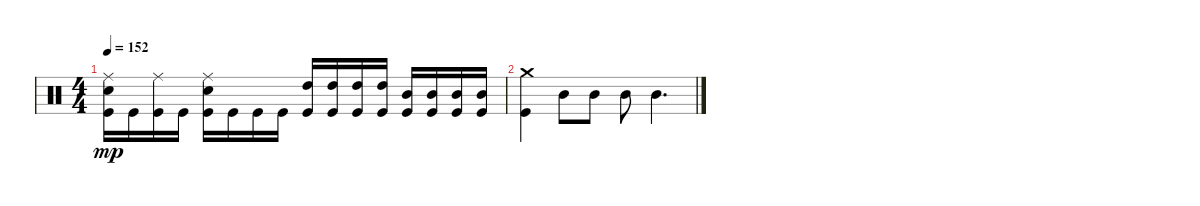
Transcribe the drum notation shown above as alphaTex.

\track "" {instrument percussion}
\staff {score}
\articulation defaults
\ts (4 4)
\tempo 152
\clef neutral
\ks c
("Kick (hit)" "Snare (hit) 2" "Ride (middle)").16{dy mp} "Kick (hit)".16 ("Kick (hit)" "Ride (middle)").16 "Kick (hit)".16 ("Kick (hit)" "Snare (hit) 2" "Ride (middle)").16 "Kick (hit)".16 "Kick (hit)".16 "Kick (hit)".16 ("Kick (hit)" "High Tom (hit)").16 ("Kick (hit)" "High Tom (hit)").16 ("Kick (hit)" "High Tom (hit)").16 ("Kick (hit)" "High Tom (hit)").16 ("Kick (hit)" "Mid Tom (hit)").16 ("Kick (hit)" "Mid Tom (hit)").16 ("Kick (hit)" "Mid Tom (hit)").16 ("Kick (hit)" "Mid Tom (hit)").16 |
("Crash medium (hit)" "Kick (hit)").4 "Mid Tom (hit)".8 "Mid Tom (hit)".8 "Mid Tom (hit)".8 "Mid Tom (hit)".4{d}
